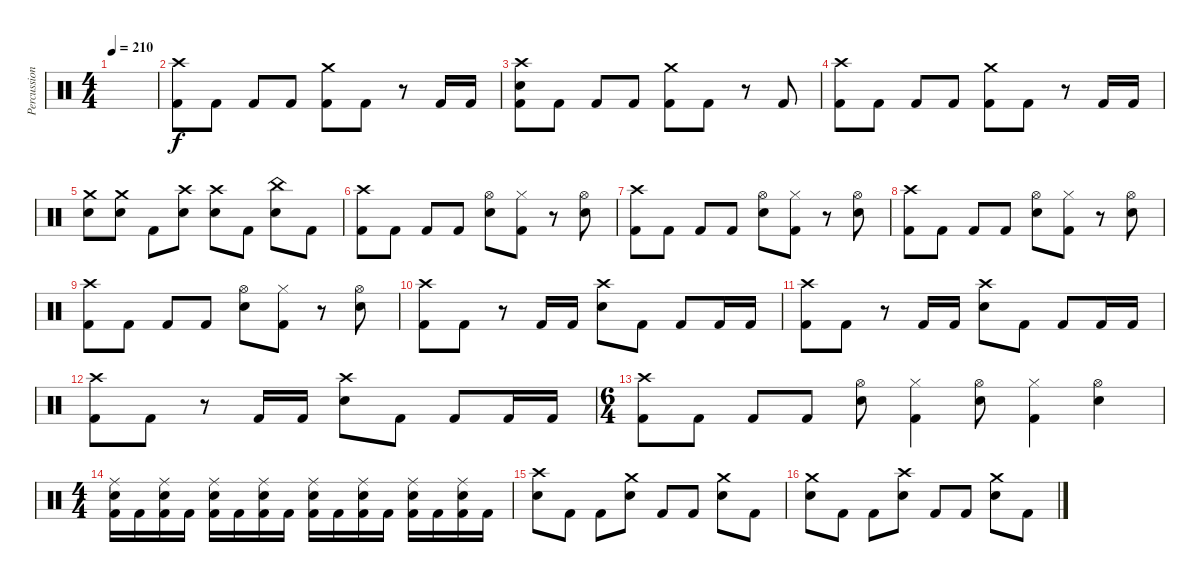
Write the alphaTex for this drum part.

\track ("Percussion" "Percussion") {instrument percussion}
\staff {score}
\articulation defaults
\ts (4 4)
\tempo 210
\clef neutral
\ks c
|
("Crash high (hit)" "Kick (hit) 2").8 "Kick (hit) 2".8 "Kick (hit) 2".8 "Kick (hit) 2".8 ("Crash medium (hit)" "Kick (hit) 2").8 "Kick (hit) 2".8 r.8 "Kick (hit) 2".16 "Kick (hit) 2".16 |
("Crash high (hit)" "Electric Snare (hit)" "Kick (hit) 2").8 "Kick (hit) 2".8 "Kick (hit) 2".8 "Kick (hit) 2".8 ("Crash medium (hit)" "Kick (hit) 2").8 "Kick (hit) 2".8 r.8 "Kick (hit) 2".8 |
("Crash high (hit)" "Kick (hit) 2").8 "Kick (hit) 2".8 "Kick (hit) 2".8 "Kick (hit) 2".8 ("Crash medium (hit)" "Kick (hit) 2").8 "Kick (hit) 2".8 r.8 "Kick (hit) 2".16 "Kick (hit) 2".16 |
("Crash medium (hit)" "Electric Snare (hit)").8 ("Crash medium (hit)" "Electric Snare (hit)").8 "Kick (hit) 2".8 ("Crash high (hit)" "Electric Snare (hit)").8 ("Crash high (hit)" "Electric Snare (hit)").8 "Kick (hit) 2".8 ("China (hit)" "Electric Snare (hit)").8 "Kick (hit) 2".8 |
("Crash high (hit)" "Kick (hit) 2").8 "Kick (hit) 2".8 "Kick (hit) 2".8 "Kick (hit) 2".8 ("Hi-Hat (open)" "Electric Snare (hit)").8 ("Hi-Hat (closed)" "Kick (hit) 2").8 r.8 ("Hi-Hat (open)" "Electric Snare (hit)").8 |
("Crash high (hit)" "Kick (hit) 2").8 "Kick (hit) 2".8 "Kick (hit) 2".8 "Kick (hit) 2".8 ("Hi-Hat (open)" "Electric Snare (hit)").8 ("Hi-Hat (closed)" "Kick (hit) 2").8 r.8 ("Hi-Hat (open)" "Electric Snare (hit)").8 |
("Crash high (hit)" "Kick (hit) 2").8 "Kick (hit) 2".8 "Kick (hit) 2".8 "Kick (hit) 2".8 ("Hi-Hat (open)" "Electric Snare (hit)").8 ("Hi-Hat (closed)" "Kick (hit) 2").8 r.8 ("Hi-Hat (open)" "Electric Snare (hit)").8 |
("Crash high (hit)" "Kick (hit) 2").8 "Kick (hit) 2".8 "Kick (hit) 2".8 "Kick (hit) 2".8 ("Hi-Hat (open)" "Electric Snare (hit)").8 ("Hi-Hat (closed)" "Kick (hit) 2").8 r.8 ("Hi-Hat (open)" "Electric Snare (hit)").8 |
("Crash high (hit)" "Kick (hit) 2").8 "Kick (hit) 2".8 r.8 "Kick (hit) 2".16 "Kick (hit) 2".16 ("Crash high (hit)" "Electric Snare (hit)").8 "Kick (hit) 2".8 "Kick (hit) 2".8 "Kick (hit) 2".16 "Kick (hit) 2".16 |
("Crash high (hit)" "Kick (hit) 2").8 "Kick (hit) 2".8 r.8 "Kick (hit) 2".16 "Kick (hit) 2".16 ("Crash high (hit)" "Electric Snare (hit)").8 "Kick (hit) 2".8 "Kick (hit) 2".8 "Kick (hit) 2".16 "Kick (hit) 2".16 |
("Crash high (hit)" "Kick (hit) 2").8 "Kick (hit) 2".8 r.8 "Kick (hit) 2".16 "Kick (hit) 2".16 ("Crash high (hit)" "Electric Snare (hit)").8 "Kick (hit) 2".8 "Kick (hit) 2".8 "Kick (hit) 2".16 "Kick (hit) 2".16 |
\ts (6 4)
("Crash high (hit)" "Kick (hit) 2").8 "Kick (hit) 2".8 "Kick (hit) 2".8 "Kick (hit) 2".8 ("Hi-Hat (open)" "Electric Snare (hit)").8 ("Hi-Hat (closed)" "Kick (hit) 2").4 ("Hi-Hat (open)" "Electric Snare (hit)").8 ("Hi-Hat (closed)" "Kick (hit) 2").4 ("Hi-Hat (open)" "Electric Snare (hit)").4 |
\ts (4 4)
("Ride (middle)" "Electric Snare (hit)" "Kick (hit) 2").16 "Kick (hit) 2".16 ("Ride (middle)" "Electric Snare (hit)" "Kick (hit) 2").16 "Kick (hit) 2".16 ("Ride (middle)" "Electric Snare (hit)" "Kick (hit) 2").16 "Kick (hit) 2".16 ("Ride (middle)" "Electric Snare (hit)" "Kick (hit) 2").16 "Kick (hit) 2".16 ("Ride (middle)" "Electric Snare (hit)" "Kick (hit) 2").16 "Kick (hit) 2".16 ("Ride (middle)" "Electric Snare (hit)" "Kick (hit) 2").16 "Kick (hit) 2".16 ("Ride (middle)" "Electric Snare (hit)" "Kick (hit) 2").16 "Kick (hit) 2".16 ("Ride (middle)" "Electric Snare (hit)" "Kick (hit) 2").16 "Kick (hit) 2".16 |
("Crash high (hit)" "Electric Snare (hit)").8 "Kick (hit) 2".8 "Kick (hit) 2".8 ("Crash medium (hit)" "Electric Snare (hit)").8 "Kick (hit) 2".8 "Kick (hit) 2".8 ("Crash medium (hit)" "Electric Snare (hit)").8 "Kick (hit) 2".8 |
("Crash medium (hit)" "Electric Snare (hit)").8 "Kick (hit) 2".8 "Kick (hit) 2".8 ("Crash high (hit)" "Electric Snare (hit)").8 "Kick (hit) 2".8 "Kick (hit) 2".8 ("Crash medium (hit)" "Electric Snare (hit)").8 "Kick (hit) 2".8
